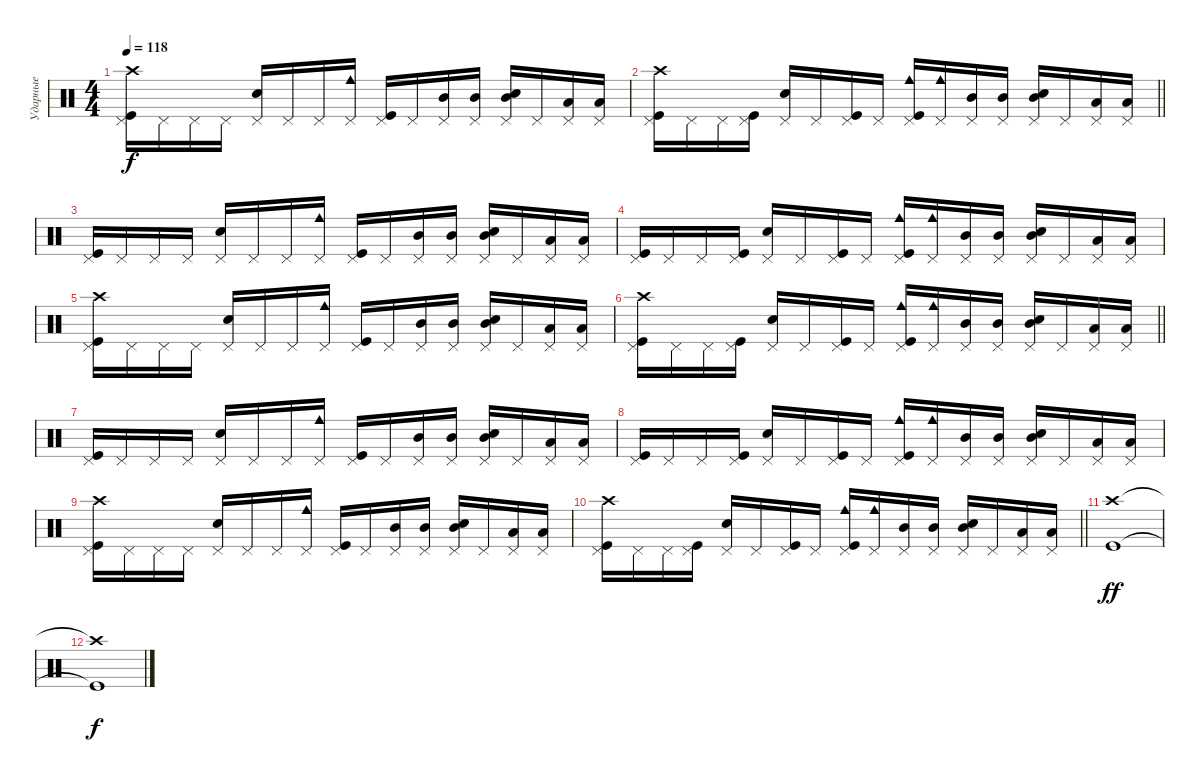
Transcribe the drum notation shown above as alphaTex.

\track ("Ударные" "Ударные") {instrument percussion}
\staff {score}
\articulation defaults
\ts (4 4)
\tempo 118
\clef neutral
\ks c
("Pedal Hi-Hat (hit)" "Kick (hit)" "Crash high (hit)").16{dy f} "Pedal Hi-Hat (hit)".16 "Pedal Hi-Hat (hit)".16 "Pedal Hi-Hat (hit)".16 ("Pedal Hi-Hat (hit)" "Snare (hit) 2").16 "Pedal Hi-Hat (hit)".16 "Pedal Hi-Hat (hit)".16 ("Pedal Hi-Hat (hit)" "Cowbell medium (hit)").16 ("Pedal Hi-Hat (hit)" "Kick (hit)").16 "Pedal Hi-Hat (hit)".16 ("Pedal Hi-Hat (hit)" "Mid Tom (hit)").16 ("Pedal Hi-Hat (hit)" "Mid Tom (hit)").16 ("Pedal Hi-Hat (hit)" "Mid Tom (hit)" "Snare (hit) 2").16 "Pedal Hi-Hat (hit)".16 ("Pedal Hi-Hat (hit)" "Low Tom (hit)").16 ("Pedal Hi-Hat (hit)" "Low Tom (hit)").16 |
\barLineRight lightlight
("Pedal Hi-Hat (hit)" "Kick (hit)" "Crash high (hit)").16 "Pedal Hi-Hat (hit)".16 "Pedal Hi-Hat (hit)".16 ("Pedal Hi-Hat (hit)" "Kick (hit)").16 ("Pedal Hi-Hat (hit)" "Snare (hit) 2").16 "Pedal Hi-Hat (hit)".16 ("Pedal Hi-Hat (hit)" "Kick (hit)").16 "Pedal Hi-Hat (hit)".16 ("Pedal Hi-Hat (hit)" "Kick (hit)" "Cowbell medium (hit)").16 ("Pedal Hi-Hat (hit)" "Cowbell medium (hit)").16 ("Pedal Hi-Hat (hit)" "Mid Tom (hit)").16 ("Pedal Hi-Hat (hit)" "Mid Tom (hit)").16 ("Pedal Hi-Hat (hit)" "Mid Tom (hit)" "Snare (hit) 2").16 "Pedal Hi-Hat (hit)".16 ("Pedal Hi-Hat (hit)" "Low Tom (hit)").16 ("Pedal Hi-Hat (hit)" "Low Tom (hit)").16 |
("Pedal Hi-Hat (hit)" "Kick (hit)").16 "Pedal Hi-Hat (hit)".16 "Pedal Hi-Hat (hit)".16 "Pedal Hi-Hat (hit)".16 ("Pedal Hi-Hat (hit)" "Snare (hit) 2").16 "Pedal Hi-Hat (hit)".16 "Pedal Hi-Hat (hit)".16 ("Pedal Hi-Hat (hit)" "Cowbell medium (hit)").16 ("Pedal Hi-Hat (hit)" "Kick (hit)").16 "Pedal Hi-Hat (hit)".16 ("Pedal Hi-Hat (hit)" "Mid Tom (hit)").16 ("Pedal Hi-Hat (hit)" "Mid Tom (hit)").16 ("Pedal Hi-Hat (hit)" "Mid Tom (hit)" "Snare (hit) 2").16 "Pedal Hi-Hat (hit)".16 ("Pedal Hi-Hat (hit)" "Low Tom (hit)").16 ("Pedal Hi-Hat (hit)" "Low Tom (hit)").16 |
("Pedal Hi-Hat (hit)" "Kick (hit)").16 "Pedal Hi-Hat (hit)".16 "Pedal Hi-Hat (hit)".16 ("Pedal Hi-Hat (hit)" "Kick (hit)").16 ("Pedal Hi-Hat (hit)" "Snare (hit) 2").16 "Pedal Hi-Hat (hit)".16 ("Pedal Hi-Hat (hit)" "Kick (hit)").16 "Pedal Hi-Hat (hit)".16 ("Pedal Hi-Hat (hit)" "Kick (hit)" "Cowbell medium (hit)").16 ("Pedal Hi-Hat (hit)" "Cowbell medium (hit)").16 ("Pedal Hi-Hat (hit)" "Mid Tom (hit)").16 ("Pedal Hi-Hat (hit)" "Mid Tom (hit)").16 ("Pedal Hi-Hat (hit)" "Mid Tom (hit)" "Snare (hit) 2").16 "Pedal Hi-Hat (hit)".16 ("Pedal Hi-Hat (hit)" "Low Tom (hit)").16 ("Pedal Hi-Hat (hit)" "Low Tom (hit)").16 |
("Pedal Hi-Hat (hit)" "Kick (hit)" "Crash high (hit)").16 "Pedal Hi-Hat (hit)".16 "Pedal Hi-Hat (hit)".16 "Pedal Hi-Hat (hit)".16 ("Pedal Hi-Hat (hit)" "Snare (hit) 2").16 "Pedal Hi-Hat (hit)".16 "Pedal Hi-Hat (hit)".16 ("Pedal Hi-Hat (hit)" "Cowbell medium (hit)").16 ("Pedal Hi-Hat (hit)" "Kick (hit)").16 "Pedal Hi-Hat (hit)".16 ("Pedal Hi-Hat (hit)" "Mid Tom (hit)").16 ("Pedal Hi-Hat (hit)" "Mid Tom (hit)").16 ("Pedal Hi-Hat (hit)" "Mid Tom (hit)" "Snare (hit) 2").16 "Pedal Hi-Hat (hit)".16 ("Pedal Hi-Hat (hit)" "Low Tom (hit)").16 ("Pedal Hi-Hat (hit)" "Low Tom (hit)").16 |
\barLineRight lightlight
("Pedal Hi-Hat (hit)" "Kick (hit)" "Crash high (hit)").16 "Pedal Hi-Hat (hit)".16 "Pedal Hi-Hat (hit)".16 ("Pedal Hi-Hat (hit)" "Kick (hit)").16 ("Pedal Hi-Hat (hit)" "Snare (hit) 2").16 "Pedal Hi-Hat (hit)".16 ("Pedal Hi-Hat (hit)" "Kick (hit)").16 "Pedal Hi-Hat (hit)".16 ("Pedal Hi-Hat (hit)" "Kick (hit)" "Cowbell medium (hit)").16 ("Pedal Hi-Hat (hit)" "Cowbell medium (hit)").16 ("Pedal Hi-Hat (hit)" "Mid Tom (hit)").16 ("Pedal Hi-Hat (hit)" "Mid Tom (hit)").16 ("Pedal Hi-Hat (hit)" "Mid Tom (hit)" "Snare (hit) 2").16 "Pedal Hi-Hat (hit)".16 ("Pedal Hi-Hat (hit)" "Low Tom (hit)").16 ("Pedal Hi-Hat (hit)" "Low Tom (hit)").16 |
("Pedal Hi-Hat (hit)" "Kick (hit)").16 "Pedal Hi-Hat (hit)".16 "Pedal Hi-Hat (hit)".16 "Pedal Hi-Hat (hit)".16 ("Pedal Hi-Hat (hit)" "Snare (hit) 2").16 "Pedal Hi-Hat (hit)".16 "Pedal Hi-Hat (hit)".16 ("Pedal Hi-Hat (hit)" "Cowbell medium (hit)").16 ("Pedal Hi-Hat (hit)" "Kick (hit)").16 "Pedal Hi-Hat (hit)".16 ("Pedal Hi-Hat (hit)" "Mid Tom (hit)").16 ("Pedal Hi-Hat (hit)" "Mid Tom (hit)").16 ("Pedal Hi-Hat (hit)" "Mid Tom (hit)" "Snare (hit) 2").16 "Pedal Hi-Hat (hit)".16 ("Pedal Hi-Hat (hit)" "Low Tom (hit)").16 ("Pedal Hi-Hat (hit)" "Low Tom (hit)").16 |
("Pedal Hi-Hat (hit)" "Kick (hit)").16 "Pedal Hi-Hat (hit)".16 "Pedal Hi-Hat (hit)".16 ("Pedal Hi-Hat (hit)" "Kick (hit)").16 ("Pedal Hi-Hat (hit)" "Snare (hit) 2").16 "Pedal Hi-Hat (hit)".16 ("Pedal Hi-Hat (hit)" "Kick (hit)").16 "Pedal Hi-Hat (hit)".16 ("Pedal Hi-Hat (hit)" "Kick (hit)" "Cowbell medium (hit)").16 ("Pedal Hi-Hat (hit)" "Cowbell medium (hit)").16 ("Pedal Hi-Hat (hit)" "Mid Tom (hit)").16 ("Pedal Hi-Hat (hit)" "Mid Tom (hit)").16 ("Pedal Hi-Hat (hit)" "Mid Tom (hit)" "Snare (hit) 2").16 "Pedal Hi-Hat (hit)".16 ("Pedal Hi-Hat (hit)" "Low Tom (hit)").16 ("Pedal Hi-Hat (hit)" "Low Tom (hit)").16 |
("Pedal Hi-Hat (hit)" "Kick (hit)" "Crash high (hit)").16 "Pedal Hi-Hat (hit)".16 "Pedal Hi-Hat (hit)".16 "Pedal Hi-Hat (hit)".16 ("Pedal Hi-Hat (hit)" "Snare (hit) 2").16 "Pedal Hi-Hat (hit)".16 "Pedal Hi-Hat (hit)".16 ("Pedal Hi-Hat (hit)" "Cowbell medium (hit)").16 ("Pedal Hi-Hat (hit)" "Kick (hit)").16 "Pedal Hi-Hat (hit)".16 ("Pedal Hi-Hat (hit)" "Mid Tom (hit)").16 ("Pedal Hi-Hat (hit)" "Mid Tom (hit)").16 ("Pedal Hi-Hat (hit)" "Mid Tom (hit)" "Snare (hit) 2").16 "Pedal Hi-Hat (hit)".16 ("Pedal Hi-Hat (hit)" "Low Tom (hit)").16 ("Pedal Hi-Hat (hit)" "Low Tom (hit)").16 |
\barLineRight lightlight
("Pedal Hi-Hat (hit)" "Kick (hit)" "Crash high (hit)").16 "Pedal Hi-Hat (hit)".16 "Pedal Hi-Hat (hit)".16 ("Pedal Hi-Hat (hit)" "Kick (hit)").16 ("Pedal Hi-Hat (hit)" "Snare (hit) 2").16 "Pedal Hi-Hat (hit)".16 ("Pedal Hi-Hat (hit)" "Kick (hit)").16 "Pedal Hi-Hat (hit)".16 ("Pedal Hi-Hat (hit)" "Kick (hit)" "Cowbell medium (hit)").16 ("Pedal Hi-Hat (hit)" "Cowbell medium (hit)").16 ("Pedal Hi-Hat (hit)" "Mid Tom (hit)").16 ("Pedal Hi-Hat (hit)" "Mid Tom (hit)").16 ("Pedal Hi-Hat (hit)" "Mid Tom (hit)" "Snare (hit) 2").16 "Pedal Hi-Hat (hit)".16 ("Pedal Hi-Hat (hit)" "Low Tom (hit)").16 ("Pedal Hi-Hat (hit)" "Low Tom (hit)").16 |
("Kick (hit)" "Crash high (hit)").1{dy ff} |
("Kick (hit)"{t} "Crash high (hit)"{t}).1{dy f}
